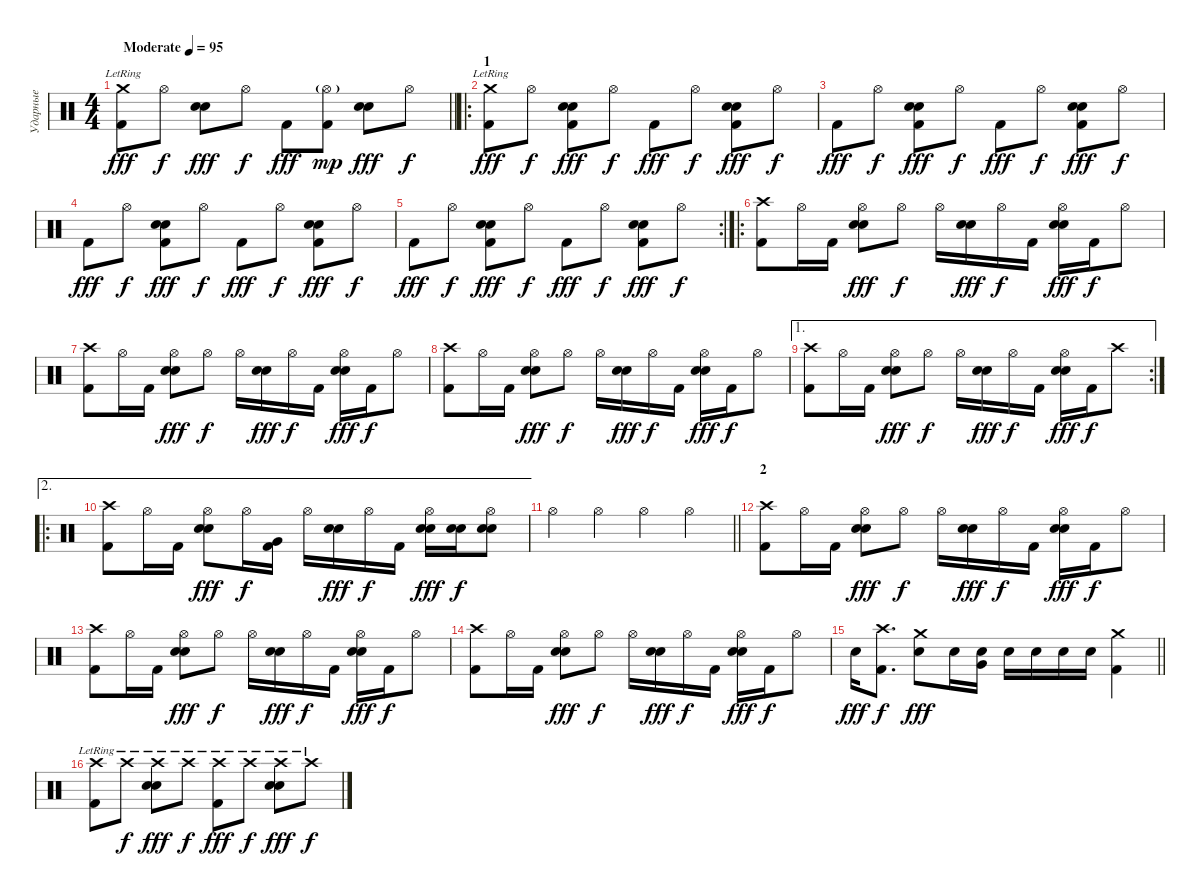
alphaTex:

\track ("Ударные" "Ударные") {instrument percussion}
\staff {score}
\articulation defaults
\ts (4 4)
\tempo (95 "Moderate")
\clef neutral
\barLineRight lightlight
\ks c
("Crash medium (hit)"{lr} "Kick (hit) 2").8{dy fff} "Hi-Hat (open)".8{dy f} ("Snare (hit) 2" "Electric Snare (hit)").8{dy fff} "Hi-Hat (open)".8{dy f} "Kick (hit) 2".8{dy fff} ("Hi-Hat (open)"{g} "Kick (hit) 2").8{dy mp} ("Snare (hit) 2" "Electric Snare (hit)").8{dy fff} "Hi-Hat (open)".8{dy f} |
\ro
\section ("" "1")
("Crash medium (hit)"{lr} "Kick (hit) 2").8{dy fff} "Hi-Hat (open)".8{dy f} ("Snare (hit) 2" "Electric Snare (hit)" "Kick (hit) 2").8{dy fff} "Hi-Hat (open)".8{dy f} "Kick (hit) 2".8{dy fff} "Hi-Hat (open)".8{dy f} ("Snare (hit) 2" "Electric Snare (hit)" "Kick (hit) 2").8{dy fff} "Hi-Hat (open)".8{dy f} |
"Kick (hit) 2".8{dy fff} "Hi-Hat (open)".8{dy f} ("Snare (hit) 2" "Electric Snare (hit)" "Kick (hit) 2").8{dy fff} "Hi-Hat (open)".8{dy f} "Kick (hit) 2".8{dy fff} "Hi-Hat (open)".8{dy f} ("Snare (hit) 2" "Electric Snare (hit)" "Kick (hit) 2").8{dy fff} "Hi-Hat (open)".8{dy f} |
"Kick (hit) 2".8{dy fff} "Hi-Hat (open)".8{dy f} ("Snare (hit) 2" "Electric Snare (hit)" "Kick (hit) 2").8{dy fff} "Hi-Hat (open)".8{dy f} "Kick (hit) 2".8{dy fff} "Hi-Hat (open)".8{dy f} ("Snare (hit) 2" "Electric Snare (hit)" "Kick (hit) 2").8{dy fff} "Hi-Hat (open)".8{dy f} |
\rc 2 "Kick (hit) 2".8{dy fff} "Hi-Hat (open)".8{dy f}
("Snare (hit) 2" "Electric Snare (hit)" "Kick (hit) 2").8{dy fff} "Hi-Hat (open)".8{dy f} "Kick (hit) 2".8{dy fff} "Hi-Hat (open)".8{dy f} ("Snare (hit) 2" "Electric Snare (hit)" "Kick (hit) 2").8{dy fff} "Hi-Hat (open)".8{dy f} |
\ro
("Crash high (hit)" "Kick (hit) 2").8 "Hi-Hat (open)".16 "Kick (hit) 2".16 ("Hi-Hat (open)" "Electric Snare (hit)" "Snare (hit) 2").8{dy fff} "Hi-Hat (open)".8{dy f} "Hi-Hat (open)".16 ("Electric Snare (hit)" "Snare (hit) 2").16{dy fff} "Hi-Hat (open)".16{dy f} "Kick (hit) 2".16 ("Hi-Hat (open)" "Electric Snare (hit)" "Snare (hit) 2").16{dy fff} "Kick (hit) 2".16{dy f} "Hi-Hat (open)".8 |
("Crash high (hit)" "Kick (hit) 2").8 "Hi-Hat (open)".16 "Kick (hit) 2".16 ("Hi-Hat (open)" "Electric Snare (hit)" "Snare (hit) 2").8{dy fff} "Hi-Hat (open)".8{dy f} "Hi-Hat (open)".16 ("Electric Snare (hit)" "Snare (hit) 2").16{dy fff} "Hi-Hat (open)".16{dy f} "Kick (hit) 2".16 ("Hi-Hat (open)" "Electric Snare (hit)" "Snare (hit) 2").16{dy fff} "Kick (hit) 2".16{dy f} "Hi-Hat (open)".8 |
("Crash high (hit)" "Kick (hit) 2").8 "Hi-Hat (open)".16 "Kick (hit) 2".16 ("Hi-Hat (open)" "Electric Snare (hit)" "Snare (hit) 2").8{dy fff} "Hi-Hat (open)".8{dy f} "Hi-Hat (open)".16 ("Electric Snare (hit)" "Snare (hit) 2").16{dy fff} "Hi-Hat (open)".16{dy f} "Kick (hit) 2".16 ("Hi-Hat (open)" "Electric Snare (hit)" "Snare (hit) 2").16{dy fff} "Kick (hit) 2".16{dy f} "Hi-Hat (open)".8 |
\ae 1
\rc 2
("Crash high (hit)" "Kick (hit) 2").8 "Hi-Hat (open)".16 "Kick (hit) 2".16 ("Hi-Hat (open)" "Electric Snare (hit)" "Snare (hit) 2").8{dy fff} "Hi-Hat (open)".8{dy f} "Hi-Hat (open)".16 ("Electric Snare (hit)" "Snare (hit) 2").16{dy fff} "Hi-Hat (open)".16{dy f} "Kick (hit) 2".16 ("Hi-Hat (open)" "Electric Snare (hit)" "Snare (hit) 2").16{dy fff} "Kick (hit) 2".16{dy f} "Crash high (hit)".8 |
\ae 2
\ro
("Crash high (hit)" "Kick (hit) 2").8 "Hi-Hat (open)".16 "Kick (hit) 2".16 ("Hi-Hat (open)" "Electric Snare (hit)" "Snare (hit) 2").8{dy fff} "Hi-Hat (open)".16{dy f} ("Very Low Tom (hit)" "Kick (hit) 2").16 "Hi-Hat (open)".16 ("Electric Snare (hit)" "Snare (hit) 2").16{dy fff} "Hi-Hat (open)".16{dy f} "Kick (hit) 2".16 ("Hi-Hat (open)" "Electric Snare (hit)" "Snare (hit) 2").16{dy fff} ("Electric Snare (hit)" "Snare (hit) 2").16{dy f} ("Hi-Hat (open)" "Electric Snare (hit)" "Snare (hit) 2").8 |
\barLineRight lightlight "Hi-Hat (open)".4 "Hi-Hat (open)".4 "Hi-Hat (open)".4 "Hi-Hat (open)".4
|
\section ("" "2")
("Crash high (hit)" "Kick (hit) 2").8 "Hi-Hat (open)".16 "Kick (hit) 2".16 ("Hi-Hat (open)" "Electric Snare (hit)" "Snare (hit) 2").8{dy fff} "Hi-Hat (open)".8{dy f} "Hi-Hat (open)".16 ("Electric Snare (hit)" "Snare (hit) 2").16{dy fff} "Hi-Hat (open)".16{dy f} "Kick (hit) 2".16 ("Hi-Hat (open)" "Electric Snare (hit)" "Snare (hit) 2").16{dy fff} "Kick (hit) 2".16{dy f} "Hi-Hat (open)".8 |
("Crash high (hit)" "Kick (hit) 2").8 "Hi-Hat (open)".16 "Kick (hit) 2".16 ("Hi-Hat (open)" "Electric Snare (hit)" "Snare (hit) 2").8{dy fff} "Hi-Hat (open)".8{dy f} "Hi-Hat (open)".16 ("Electric Snare (hit)" "Snare (hit) 2").16{dy fff} "Hi-Hat (open)".16{dy f} "Kick (hit) 2".16 ("Hi-Hat (open)" "Electric Snare (hit)" "Snare (hit) 2").16{dy fff} "Kick (hit) 2".16{dy f} "Hi-Hat (open)".8 |
("Crash high (hit)" "Kick (hit) 2").8 "Hi-Hat (open)".16 "Kick (hit) 2".16 ("Hi-Hat (open)" "Electric Snare (hit)" "Snare (hit) 2").8{dy fff} "Hi-Hat (open)".8{dy f} "Hi-Hat (open)".16 ("Electric Snare (hit)" "Snare (hit) 2").16{dy fff} "Hi-Hat (open)".16{dy f} "Kick (hit) 2".16 ("Hi-Hat (open)" "Electric Snare (hit)" "Snare (hit) 2").16{dy fff} "Kick (hit) 2".16{dy f} "Hi-Hat (open)".8 |
\barLineRight lightlight "Snare (hit) 2".16{dy fff}
("Crash high (hit)" "Kick (hit) 2").8{d dy f} ("Crash medium (hit)" "Snare (hit) 2").8{dy fff} "Snare (hit) 2".16 ("Snare (hit) 2" "Very Low Tom (hit)").16 "Snare (hit) 2".16 "Snare (hit) 2".16 "Snare (hit) 2".16 "Snare (hit) 2".16 ("Crash medium (hit)" "Kick (hit) 2").4 |
("Crash high (hit)"{lr} "Kick (hit) 2").8 "Crash high (hit)"{lr}.8{dy f} ("Crash high (hit)"{lr} "Electric Snare (hit)" "Snare (hit) 2").8{dy fff} "Crash high (hit)"{lr}.8{dy f} ("Crash high (hit)"{lr} "Kick (hit) 2").8{dy fff} "Crash high (hit)"{lr}.8{dy f} ("Crash high (hit)"{lr} "Electric Snare (hit)" "Snare (hit) 2").8{dy fff} "Crash high (hit)"{lr}.8{dy f}
